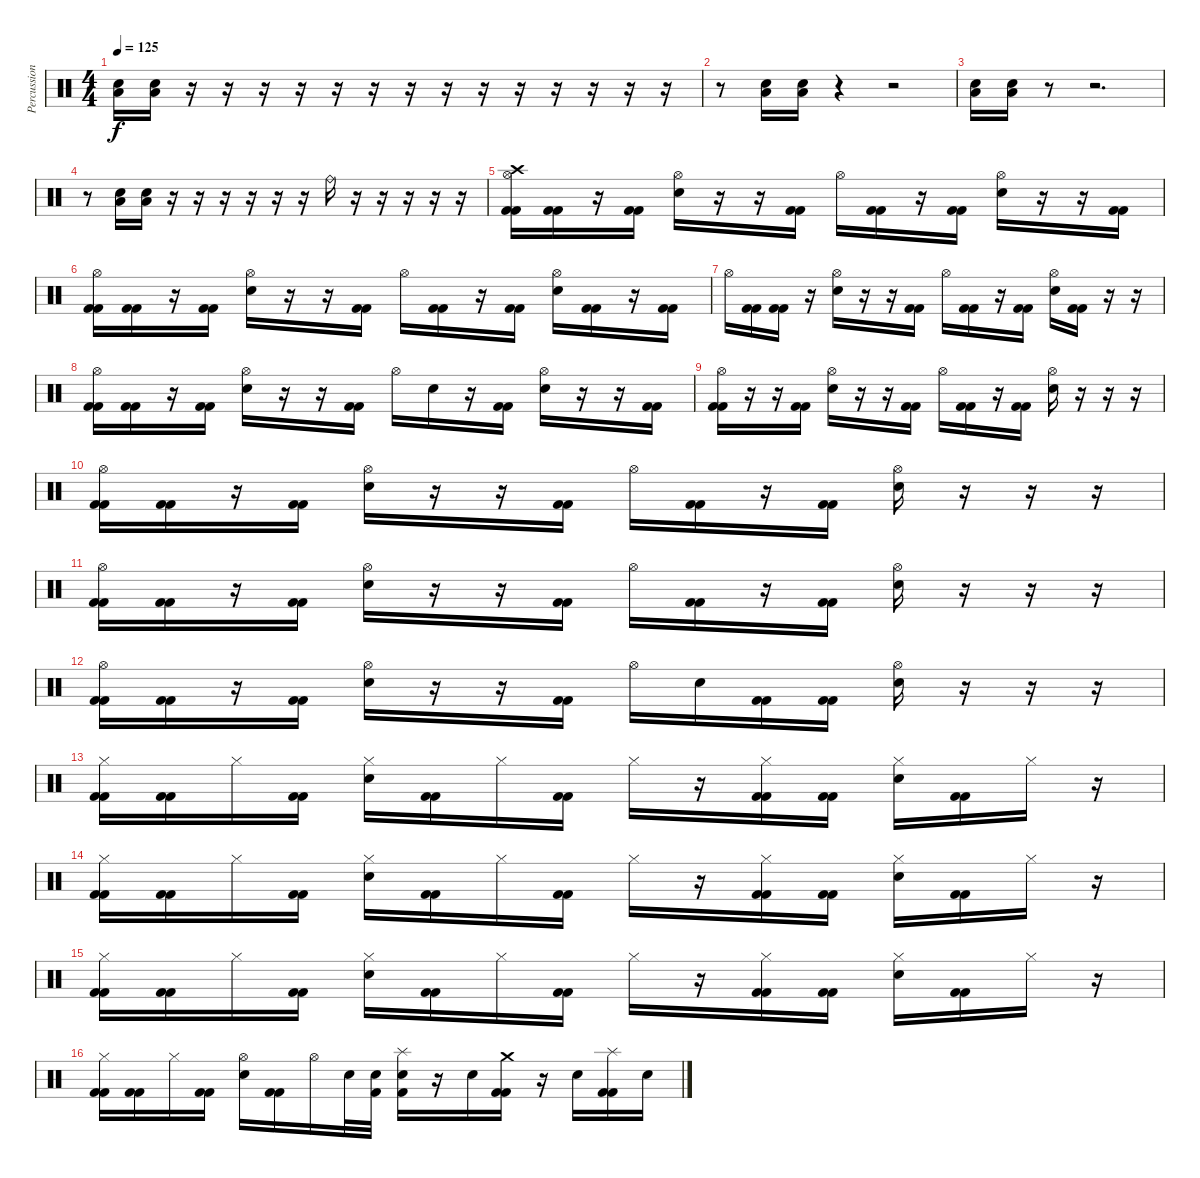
\track ("Percussion" "Percussion") {instrument percussion}
\staff {score}
\articulation defaults
\ts (4 4)
\tempo 125
\clef neutral
\ks c
("Electric Snare (hit)" "Low Floor Tom (hit)").16{dy f} ("Electric Snare (hit)" "Low Floor Tom (hit)").16 r.16 r.16 r.16 r.16 r.16 r.16 r.16 r.16 r.16 r.16 r.16 r.16 r.16 r.16 |
r.8 ("Low Floor Tom (hit)" "Electric Snare (hit)").16 ("Low Floor Tom (hit)" "Electric Snare (hit)").16 r.4 r.2 |
("Electric Snare (hit)" "Low Floor Tom (hit)").16 ("Electric Snare (hit)" "Low Floor Tom (hit)").16 r.8 r.2{d} |
r.8 ("Low Floor Tom (hit)" "Electric Snare (hit)").16 ("Low Floor Tom (hit)" "Electric Snare (hit)").16 r.16 r.16 r.16 r.16 r.16 r.16 "Ride (bell)".16 r.16 r.16 r.16 r.16 r.16 |
("Hi-Hat (open)" "Crash high (hit)" "Kick (hit) 2" "Kick (hit) 2").16 ("Kick (hit) 2" "Kick (hit) 2").16 r.16 ("Kick (hit) 2" "Kick (hit) 2").16 ("Hi-Hat (open)" "Electric Snare (hit)").16 r.16 r.16 ("Kick (hit) 2" "Kick (hit) 2").16 "Hi-Hat (open)".16 ("Kick (hit) 2" "Kick (hit) 2").16 r.16 ("Kick (hit) 2" "Kick (hit) 2").16 ("Hi-Hat (open)" "Electric Snare (hit)").16 r.16 r.16 ("Kick (hit) 2" "Kick (hit) 2").16 |
("Hi-Hat (open)" "Kick (hit) 2" "Kick (hit) 2").16 ("Kick (hit) 2" "Kick (hit) 2").16 r.16 ("Kick (hit) 2" "Kick (hit) 2").16 ("Hi-Hat (open)" "Electric Snare (hit)").16 r.16 r.16 ("Kick (hit) 2" "Kick (hit) 2").16 "Hi-Hat (open)".16 ("Kick (hit) 2" "Kick (hit) 2").16 r.16 ("Kick (hit) 2" "Kick (hit) 2").16 ("Hi-Hat (open)" "Electric Snare (hit)").16 ("Kick (hit) 2" "Kick (hit) 2").16 r.16 ("Kick (hit) 2" "Kick (hit) 2").16 |
"Hi-Hat (open)".16 ("Kick (hit) 2" "Kick (hit) 2").16 ("Kick (hit) 2" "Kick (hit) 2").16 r.16 ("Hi-Hat (open)" "Electric Snare (hit)").16 r.16 r.16 ("Kick (hit) 2" "Kick (hit) 2").16 "Hi-Hat (open)".16 ("Kick (hit) 2" "Kick (hit) 2").16 r.16 ("Kick (hit) 2" "Kick (hit) 2").16 ("Hi-Hat (open)" "Electric Snare (hit)").16 ("Kick (hit) 2" "Kick (hit) 2").16 r.16 r.16 |
("Hi-Hat (open)" "Kick (hit) 2" "Kick (hit) 2").16 ("Kick (hit) 2" "Kick (hit) 2").16 r.16 ("Kick (hit) 2" "Kick (hit) 2").16 ("Hi-Hat (open)" "Electric Snare (hit)").16 r.16 r.16 ("Kick (hit) 2" "Kick (hit) 2").16 "Hi-Hat (open)".16 "Electric Snare (hit)".16 r.16 ("Kick (hit) 2" "Kick (hit) 2").16 ("Hi-Hat (open)" "Electric Snare (hit)").16 r.16 r.16 ("Kick (hit) 2" "Kick (hit) 2").16 |
("Hi-Hat (open)" "Kick (hit) 2" "Kick (hit) 2").16 r.16 r.16 ("Kick (hit) 2" "Kick (hit) 2").16 ("Hi-Hat (open)" "Electric Snare (hit)").16 r.16 r.16 ("Kick (hit) 2" "Kick (hit) 2").16 "Hi-Hat (open)".16 ("Kick (hit) 2" "Kick (hit) 2").16 r.16 ("Kick (hit) 2" "Kick (hit) 2").16 ("Hi-Hat (open)" "Electric Snare (hit)").16 r.16 r.16 r.16 |
("Hi-Hat (open)" "Kick (hit) 2" "Kick (hit) 2").16 ("Kick (hit) 2" "Kick (hit) 2").16 r.16 ("Kick (hit) 2" "Kick (hit) 2").16 ("Hi-Hat (open)" "Electric Snare (hit)").16 r.16 r.16 ("Kick (hit) 2" "Kick (hit) 2").16 "Hi-Hat (open)".16 ("Kick (hit) 2" "Kick (hit) 2").16 r.16 ("Kick (hit) 2" "Kick (hit) 2").16 ("Hi-Hat (open)" "Electric Snare (hit)").16 r.16 r.16 r.16 |
("Hi-Hat (open)" "Kick (hit) 2" "Kick (hit) 2").16 ("Kick (hit) 2" "Kick (hit) 2").16 r.16 ("Kick (hit) 2" "Kick (hit) 2").16 ("Hi-Hat (open)" "Electric Snare (hit)").16 r.16 r.16 ("Kick (hit) 2" "Kick (hit) 2").16 "Hi-Hat (open)".16 ("Kick (hit) 2" "Kick (hit) 2").16 r.16 ("Kick (hit) 2" "Kick (hit) 2").16 ("Hi-Hat (open)" "Electric Snare (hit)").16 r.16 r.16 r.16 |
("Hi-Hat (open)" "Kick (hit) 2" "Kick (hit) 2").16 ("Kick (hit) 2" "Kick (hit) 2").16 r.16 ("Kick (hit) 2" "Kick (hit) 2").16 ("Hi-Hat (open)" "Electric Snare (hit)").16 r.16 r.16 ("Kick (hit) 2" "Kick (hit) 2").16 "Hi-Hat (open)".16 "Electric Snare (hit)".16 ("Kick (hit) 2" "Kick (hit) 2").16 ("Kick (hit) 2" "Kick (hit) 2").16 ("Hi-Hat (open)" "Electric Snare (hit)").16 r.16 r.16 r.16 |
("Hi-Hat (closed)" "Kick (hit) 2" "Kick (hit) 2").16 ("Kick (hit) 2" "Kick (hit) 2").16 "Hi-Hat (closed)".16 ("Kick (hit) 2" "Kick (hit) 2").16 ("Hi-Hat (closed)" "Electric Snare (hit)").16 ("Kick (hit) 2" "Kick (hit) 2").16 "Hi-Hat (closed)".16 ("Kick (hit) 2" "Kick (hit) 2").16 "Hi-Hat (closed)".16 r.16 ("Hi-Hat (closed)" "Kick (hit) 2" "Kick (hit) 2").16 ("Kick (hit) 2" "Kick (hit) 2").16 ("Hi-Hat (closed)" "Electric Snare (hit)").16 ("Kick (hit) 2" "Kick (hit) 2").16 "Hi-Hat (closed)".16 r.16 |
("Hi-Hat (closed)" "Kick (hit) 2" "Kick (hit) 2").16 ("Kick (hit) 2" "Kick (hit) 2").16 "Hi-Hat (closed)".16 ("Kick (hit) 2" "Kick (hit) 2").16 ("Hi-Hat (closed)" "Electric Snare (hit)").16 ("Kick (hit) 2" "Kick (hit) 2").16 "Hi-Hat (closed)".16 ("Kick (hit) 2" "Kick (hit) 2").16 "Hi-Hat (closed)".16 r.16 ("Hi-Hat (closed)" "Kick (hit) 2" "Kick (hit) 2").16 ("Kick (hit) 2" "Kick (hit) 2").16 ("Hi-Hat (closed)" "Electric Snare (hit)").16 ("Kick (hit) 2" "Kick (hit) 2").16 "Hi-Hat (closed)".16 r.16 |
("Hi-Hat (closed)" "Kick (hit) 2" "Kick (hit) 2").16 ("Kick (hit) 2" "Kick (hit) 2").16 "Hi-Hat (closed)".16 ("Kick (hit) 2" "Kick (hit) 2").16 ("Hi-Hat (closed)" "Electric Snare (hit)").16 ("Kick (hit) 2" "Kick (hit) 2").16 "Hi-Hat (closed)".16 ("Kick (hit) 2" "Kick (hit) 2").16 "Hi-Hat (closed)".16 r.16 ("Hi-Hat (closed)" "Kick (hit) 2" "Kick (hit) 2").16 ("Kick (hit) 2" "Kick (hit) 2").16 ("Hi-Hat (closed)" "Electric Snare (hit)").16 ("Kick (hit) 2" "Kick (hit) 2").16 "Hi-Hat (closed)".16 r.16 |
("Hi-Hat (closed)" "Kick (hit) 2" "Kick (hit) 2").16 ("Kick (hit) 2" "Kick (hit) 2").16 "Hi-Hat (closed)".16 ("Kick (hit) 2" "Kick (hit) 2").16 ("Hi-Hat (open)" "Electric Snare (hit)").16 ("Kick (hit) 2" "Kick (hit) 2").16 "Hi-Hat (open)".16 "Electric Snare (hit)".32 ("Electric Snare (hit)" "Kick (hit) 2").32 ("Splash (hit)" "Electric Snare (hit)" "Kick (hit) 2").16 r.16 "Electric Snare (hit)".16 ("Crash medium (hit)" "Kick (hit) 2" "Kick (hit) 2").16 r.16 "Electric Snare (hit)".16 ("Splash (hit)" "Kick (hit) 2" "Kick (hit) 2").16 "Electric Snare (hit)".16
